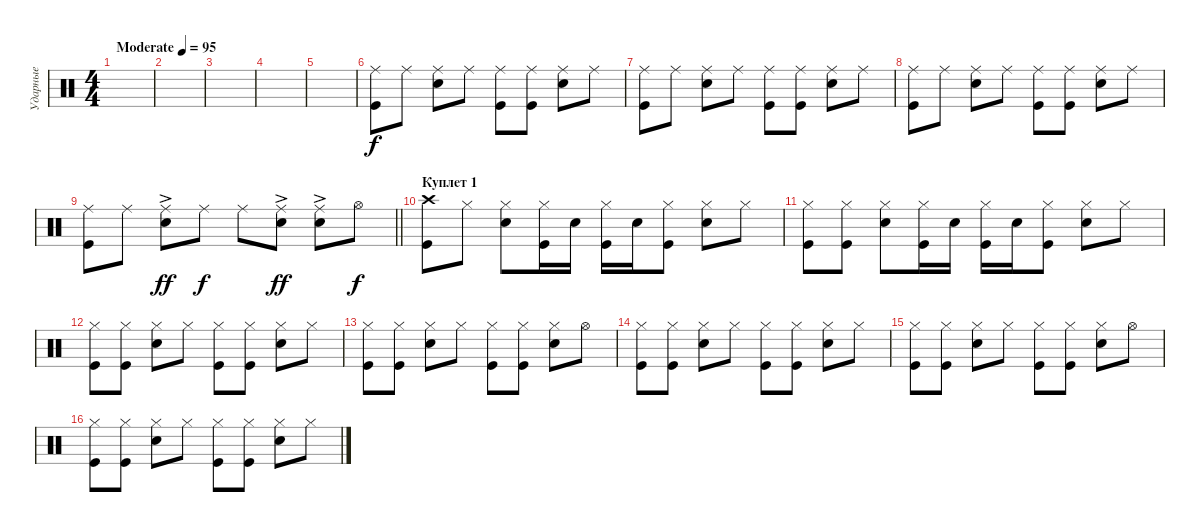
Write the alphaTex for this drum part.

\track ("Ударные" "Ударные") {instrument percussion}
\staff {score}
\articulation defaults
\ts (4 4)
\tempo (95 "Moderate")
\clef neutral
\ks c
|
|
|
|
|
("Ride (middle)" "Kick (hit)").8 "Ride (middle)".8 ("Ride (middle)" "Snare (hit) 2").8 "Ride (middle)".8 ("Ride (middle)" "Kick (hit)").8 ("Ride (middle)" "Kick (hit)").8 ("Ride (middle)" "Snare (hit) 2").8 "Ride (middle)".8 |
("Ride (middle)" "Kick (hit)").8 "Ride (middle)".8 ("Ride (middle)" "Snare (hit) 2").8 "Ride (middle)".8 ("Ride (middle)" "Kick (hit)").8 ("Ride (middle)" "Kick (hit)").8 ("Ride (middle)" "Snare (hit) 2").8 "Ride (middle)".8 |
("Ride (middle)" "Kick (hit)").8 "Ride (middle)".8 ("Ride (middle)" "Snare (hit) 2").8 "Ride (middle)".8 ("Ride (middle)" "Kick (hit)").8 ("Ride (middle)" "Kick (hit)").8 ("Ride (middle)" "Snare (hit) 2").8 "Ride (middle)".8 |
\barLineRight lightlight
("Ride (middle)" "Kick (hit)").8 "Ride (middle)".8 ("Ride (middle)" "Snare (hit) 2"{ac}).8{dy ff} "Ride (middle)".8{dy f} "Ride (middle)".8 ("Ride (middle)" "Snare (hit) 2"{ac}).8{dy ff} ("Ride (middle)" "Snare (hit) 2"{ac}).8 "Hi-Hat (open)".8{dy f} |
\section ("" "Куплет 1")
("Crash high (hit)" "Kick (hit)").8 "Hi-Hat (closed)".8 ("Hi-Hat (closed)" "Snare (hit) 2").8 ("Hi-Hat (closed)" "Kick (hit)").16 "Snare (hit) 2".16 ("Hi-Hat (closed)" "Kick (hit)").16 "Snare (hit) 2".16 ("Hi-Hat (closed)" "Kick (hit)").8 ("Hi-Hat (closed)" "Snare (hit) 2").8 "Hi-Hat (closed)".8 |
("Hi-Hat (closed)" "Kick (hit)").8 ("Hi-Hat (closed)" "Kick (hit)").8 ("Hi-Hat (closed)" "Snare (hit) 2").8 ("Hi-Hat (closed)" "Kick (hit)").16 "Snare (hit) 2".16 ("Hi-Hat (closed)" "Kick (hit)").16 "Snare (hit) 2".16 ("Hi-Hat (closed)" "Kick (hit)").8 ("Hi-Hat (closed)" "Snare (hit) 2").8 "Hi-Hat (closed)".8 |
("Hi-Hat (closed)" "Kick (hit)").8 ("Hi-Hat (closed)" "Kick (hit)").8 ("Hi-Hat (closed)" "Snare (hit) 2").8 "Hi-Hat (closed)".8 ("Hi-Hat (closed)" "Kick (hit)").8 ("Hi-Hat (closed)" "Kick (hit)").8 ("Hi-Hat (closed)" "Snare (hit) 2").8 "Hi-Hat (closed)".8 |
("Hi-Hat (closed)" "Kick (hit)").8 ("Hi-Hat (closed)" "Kick (hit)").8 ("Hi-Hat (closed)" "Snare (hit) 2").8 "Hi-Hat (closed)".8 ("Hi-Hat (closed)" "Kick (hit)").8 ("Hi-Hat (closed)" "Kick (hit)").8 ("Hi-Hat (closed)" "Snare (hit) 2").8 "Hi-Hat (open)".8 |
("Hi-Hat (closed)" "Kick (hit)").8 ("Hi-Hat (closed)" "Kick (hit)").8 ("Hi-Hat (closed)" "Snare (hit) 2").8 "Hi-Hat (closed)".8 ("Hi-Hat (closed)" "Kick (hit)").8 ("Hi-Hat (closed)" "Kick (hit)").8 ("Hi-Hat (closed)" "Snare (hit) 2").8 "Hi-Hat (closed)".8 |
("Hi-Hat (closed)" "Kick (hit)").8 ("Hi-Hat (closed)" "Kick (hit)").8 ("Hi-Hat (closed)" "Snare (hit) 2").8 "Hi-Hat (closed)".8 ("Hi-Hat (closed)" "Kick (hit)").8 ("Hi-Hat (closed)" "Kick (hit)").8 ("Hi-Hat (closed)" "Snare (hit) 2").8 "Hi-Hat (open)".8 |
("Hi-Hat (closed)" "Kick (hit)").8 ("Hi-Hat (closed)" "Kick (hit)").8 ("Hi-Hat (closed)" "Snare (hit) 2").8 "Hi-Hat (closed)".8 ("Hi-Hat (closed)" "Kick (hit)").8 ("Hi-Hat (closed)" "Kick (hit)").8 ("Hi-Hat (closed)" "Snare (hit) 2").8 "Hi-Hat (closed)".8
